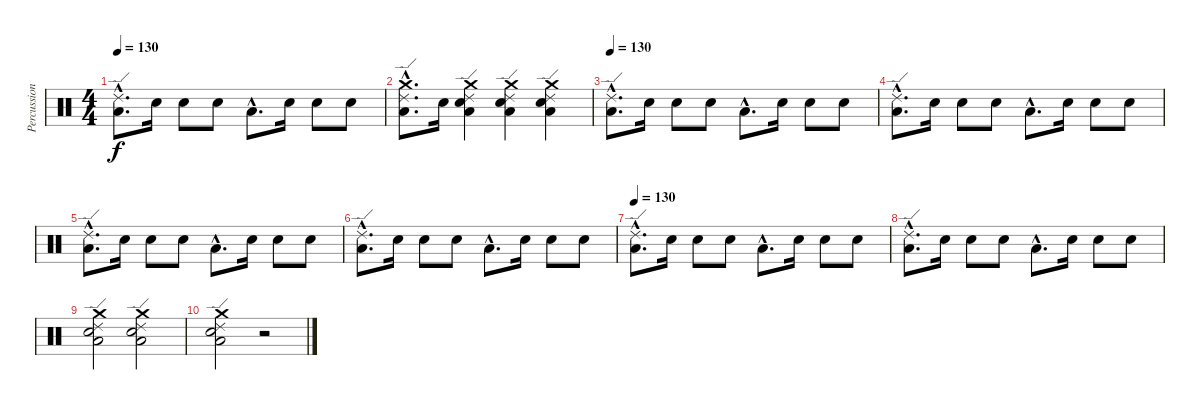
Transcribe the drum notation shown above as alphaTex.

\track ("Percussions" "Percussion") {instrument percussion}
\staff {score}
\articulation defaults
\ts (4 4)
\tempo 130
\clef neutral
\ks c
("Low Floor Tom (hit)"{hac} "Ride (edge) 2"{hac}).8{d dy f} "Snare (hit) 2".16 "Snare (hit) 2".8 "Snare (hit) 2".8 "Low Floor Tom (hit)"{hac}.8{d} "Snare (hit) 2".16 "Snare (hit) 2".8 "Snare (hit) 2".8 |
("Low Floor Tom (hit)"{hac} "Crash medium (hit)"{hac} "Ride (edge) 2"{hac}).8{d} "Snare (hit) 2".16 ("Low Floor Tom (hit)" "Snare (hit) 2" "Crash medium (hit)" "Ride (edge) 2").4 ("Low Floor Tom (hit)" "Snare (hit) 2" "Crash medium (hit)" "Ride (edge) 2").4 ("Low Floor Tom (hit)" "Snare (hit) 2" "Crash medium (hit)" "Ride (edge) 2").4 |
\tempo 130
("Low Floor Tom (hit)"{hac} "Ride (edge) 2"{hac}).8{d} "Snare (hit) 2".16 "Snare (hit) 2".8 "Snare (hit) 2".8 "Low Floor Tom (hit)"{hac}.8{d} "Snare (hit) 2".16 "Snare (hit) 2".8 "Snare (hit) 2".8 |
("Low Floor Tom (hit)"{hac} "Ride (edge) 2"{hac}).8{d} "Snare (hit) 2".16 "Snare (hit) 2".8 "Snare (hit) 2".8 "Low Floor Tom (hit)"{hac}.8{d} "Snare (hit) 2".16 "Snare (hit) 2".8 "Snare (hit) 2".8 |
("Low Floor Tom (hit)"{hac} "Ride (edge) 2"{hac}).8{d} "Snare (hit) 2".16 "Snare (hit) 2".8 "Snare (hit) 2".8 "Low Floor Tom (hit)"{hac}.8{d} "Snare (hit) 2".16 "Snare (hit) 2".8 "Snare (hit) 2".8 |
("Low Floor Tom (hit)"{hac} "Ride (edge) 2"{hac}).8{d} "Snare (hit) 2".16 "Snare (hit) 2".8 "Snare (hit) 2".8 "Low Floor Tom (hit)"{hac}.8{d} "Snare (hit) 2".16 "Snare (hit) 2".8 "Snare (hit) 2".8 |
\tempo 130
("Low Floor Tom (hit)"{hac} "Ride (edge) 2"{hac}).8{d} "Snare (hit) 2".16 "Snare (hit) 2".8 "Snare (hit) 2".8 "Low Floor Tom (hit)"{hac}.8{d} "Snare (hit) 2".16 "Snare (hit) 2".8 "Snare (hit) 2".8 |
("Low Floor Tom (hit)"{hac} "Ride (edge) 2"{hac}).8{d} "Snare (hit) 2".16 "Snare (hit) 2".8 "Snare (hit) 2".8 "Low Floor Tom (hit)"{hac}.8{d} "Snare (hit) 2".16 "Snare (hit) 2".8 "Snare (hit) 2".8 |
("Low Floor Tom (hit)" "Snare (hit) 2" "Crash medium (hit)" "Ride (edge) 2").2 ("Low Floor Tom (hit)" "Snare (hit) 2" "Crash medium (hit)" "Ride (edge) 2").2 |
("Low Floor Tom (hit)" "Snare (hit) 2" "Crash medium (hit)" "Ride (edge) 2").2 r.2
